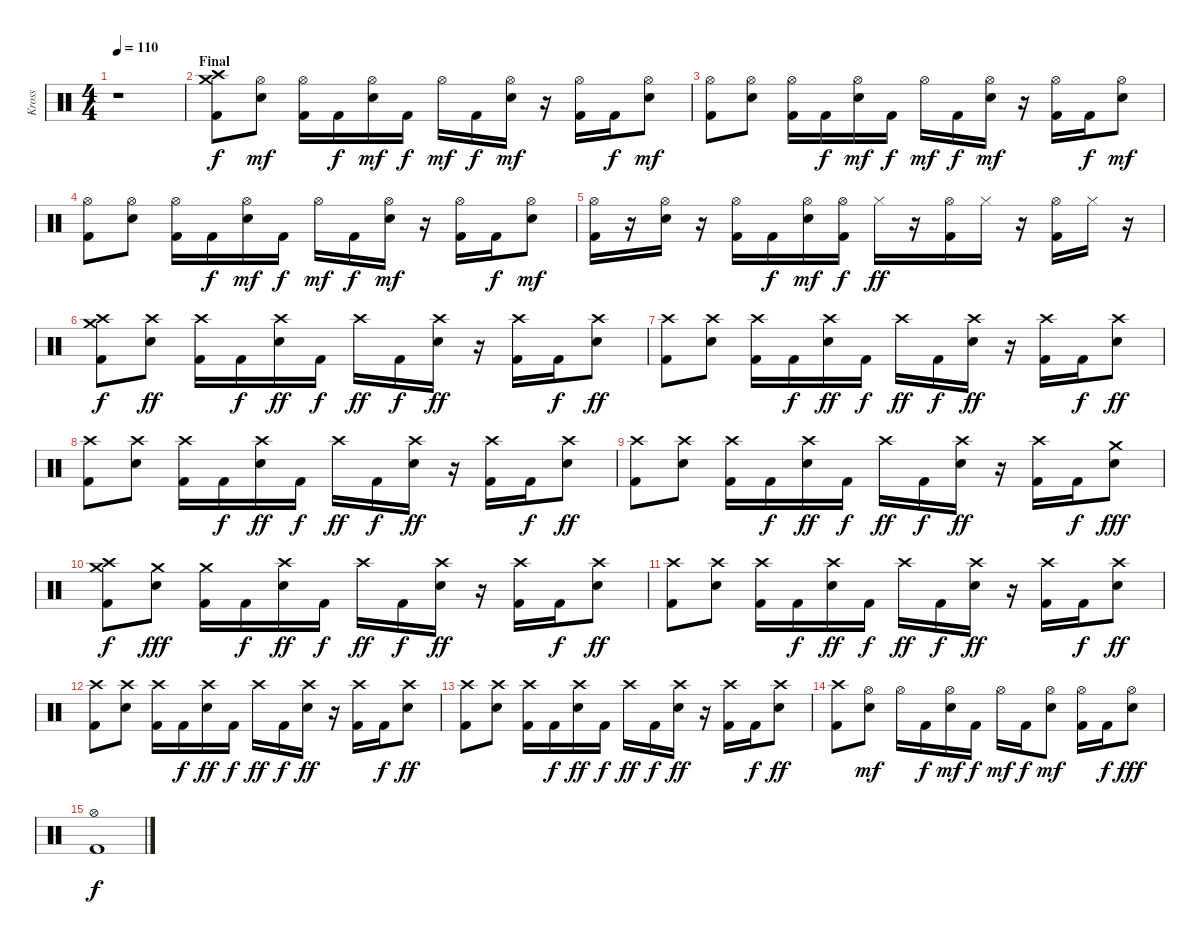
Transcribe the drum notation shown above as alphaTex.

\track ("Kross" "Kross") {instrument percussion}
\staff {score}
\articulation defaults
\ts (4 4)
\tempo 110
\clef neutral
\ks c
r.1{dy f} |
\section ("" "Final")
("Crash high (hit)" "Crash medium (hit)" "Kick (hit) 2").8 ("Hi-Hat (open)" "Electric Snare (hit)").8{dy mf} ("Hi-Hat (open)" "Kick (hit) 2").16 "Kick (hit) 2".16{dy f} ("Hi-Hat (open)" "Electric Snare (hit)").16{dy mf} "Kick (hit) 2".16{dy f} "Hi-Hat (open)".16{dy mf} "Kick (hit) 2".16{dy f} ("Hi-Hat (open)" "Electric Snare (hit)").16{dy mf} r.16 ("Hi-Hat (open)" "Kick (hit) 2").16 "Kick (hit) 2".16{dy f} ("Hi-Hat (open)" "Electric Snare (hit)").8{dy mf} |
("Hi-Hat (open)" "Kick (hit) 2").8 ("Hi-Hat (open)" "Electric Snare (hit)").8 ("Hi-Hat (open)" "Kick (hit) 2").16 "Kick (hit) 2".16{dy f} ("Hi-Hat (open)" "Electric Snare (hit)").16{dy mf} "Kick (hit) 2".16{dy f} "Hi-Hat (open)".16{dy mf} "Kick (hit) 2".16{dy f} ("Hi-Hat (open)" "Electric Snare (hit)").16{dy mf} r.16 ("Hi-Hat (open)" "Kick (hit) 2").16 "Kick (hit) 2".16{dy f} ("Hi-Hat (open)" "Electric Snare (hit)").8{dy mf} |
("Hi-Hat (open)" "Kick (hit) 2").8 ("Hi-Hat (open)" "Electric Snare (hit)").8 ("Hi-Hat (open)" "Kick (hit) 2").16 "Kick (hit) 2".16{dy f} ("Hi-Hat (open)" "Electric Snare (hit)").16{dy mf} "Kick (hit) 2".16{dy f} "Hi-Hat (open)".16{dy mf} "Kick (hit) 2".16{dy f} ("Hi-Hat (open)" "Electric Snare (hit)").16{dy mf} r.16 ("Hi-Hat (open)" "Kick (hit) 2").16 "Kick (hit) 2".16{dy f} ("Hi-Hat (open)" "Electric Snare (hit)").8{dy mf} |
("Hi-Hat (open)" "Kick (hit) 2").16 r.16 ("Hi-Hat (open)" "Electric Snare (hit)").16 r.16 ("Hi-Hat (open)" "Kick (hit) 2").16 "Kick (hit) 2".16{dy f} ("Hi-Hat (open)" "Electric Snare (hit)").16{dy mf} ("Hi-Hat (open)" "Kick (hit) 2").16{dy f} "Hi-Hat (closed)".16{dy ff} r.16 ("Hi-Hat (open)" "Kick (hit) 2").16 "Hi-Hat (closed)".16 r.16 ("Hi-Hat (open)" "Kick (hit) 2").16 "Hi-Hat (closed)".16 r.16 |
("Crash high (hit)" "Crash medium (hit)" "Kick (hit) 2").8{dy f} ("Crash high (hit)" "Electric Snare (hit)").8{dy ff} ("Crash high (hit)" "Kick (hit) 2").16 "Kick (hit) 2".16{dy f} ("Crash high (hit)" "Electric Snare (hit)").16{dy ff} "Kick (hit) 2".16{dy f} "Crash high (hit)".16{dy ff} "Kick (hit) 2".16{dy f} ("Crash high (hit)" "Electric Snare (hit)").16{dy ff} r.16 ("Crash high (hit)" "Kick (hit) 2").16 "Kick (hit) 2".16{dy f} ("Crash high (hit)" "Electric Snare (hit)").8{dy ff} |
("Crash high (hit)" "Kick (hit) 2").8 ("Crash high (hit)" "Electric Snare (hit)").8 ("Crash high (hit)" "Kick (hit) 2").16 "Kick (hit) 2".16{dy f} ("Crash high (hit)" "Electric Snare (hit)").16{dy ff} "Kick (hit) 2".16{dy f} "Crash high (hit)".16{dy ff} "Kick (hit) 2".16{dy f} ("Crash high (hit)" "Electric Snare (hit)").16{dy ff} r.16 ("Crash high (hit)" "Kick (hit) 2").16 "Kick (hit) 2".16{dy f} ("Crash high (hit)" "Electric Snare (hit)").8{dy ff} |
("Crash high (hit)" "Kick (hit) 2").8 ("Crash high (hit)" "Electric Snare (hit)").8 ("Crash high (hit)" "Kick (hit) 2").16 "Kick (hit) 2".16{dy f} ("Crash high (hit)" "Electric Snare (hit)").16{dy ff} "Kick (hit) 2".16{dy f} "Crash high (hit)".16{dy ff} "Kick (hit) 2".16{dy f} ("Crash high (hit)" "Electric Snare (hit)").16{dy ff} r.16 ("Crash high (hit)" "Kick (hit) 2").16 "Kick (hit) 2".16{dy f} ("Crash high (hit)" "Electric Snare (hit)").8{dy ff} |
("Crash high (hit)" "Kick (hit) 2").8 ("Crash high (hit)" "Electric Snare (hit)").8 ("Crash high (hit)" "Kick (hit) 2").16 "Kick (hit) 2".16{dy f} ("Crash high (hit)" "Electric Snare (hit)").16{dy ff} "Kick (hit) 2".16{dy f} "Crash high (hit)".16{dy ff} "Kick (hit) 2".16{dy f} ("Crash high (hit)" "Electric Snare (hit)").16{dy ff} r.16 ("Crash high (hit)" "Kick (hit) 2").16 "Kick (hit) 2".16{dy f} ("Crash medium (hit)" "Electric Snare (hit)").8{dy fff} |
("Crash high (hit)" "Crash medium (hit)" "Kick (hit) 2").8{dy f} ("Crash medium (hit)" "Electric Snare (hit)").8{dy fff} ("Crash medium (hit)" "Kick (hit) 2").16 "Kick (hit) 2".16{dy f} ("Crash high (hit)" "Electric Snare (hit)").16{dy ff} "Kick (hit) 2".16{dy f} "Crash high (hit)".16{dy ff} "Kick (hit) 2".16{dy f} ("Crash high (hit)" "Electric Snare (hit)").16{dy ff} r.16 ("Crash high (hit)" "Kick (hit) 2").16 "Kick (hit) 2".16{dy f} ("Crash high (hit)" "Electric Snare (hit)").8{dy ff} |
("Crash high (hit)" "Kick (hit) 2").8 ("Crash high (hit)" "Electric Snare (hit)").8 ("Crash high (hit)" "Kick (hit) 2").16 "Kick (hit) 2".16{dy f} ("Crash high (hit)" "Electric Snare (hit)").16{dy ff} "Kick (hit) 2".16{dy f} "Crash high (hit)".16{dy ff} "Kick (hit) 2".16{dy f} ("Crash high (hit)" "Electric Snare (hit)").16{dy ff} r.16 ("Crash high (hit)" "Kick (hit) 2").16 "Kick (hit) 2".16{dy f} ("Crash high (hit)" "Electric Snare (hit)").8{dy ff} |
("Crash high (hit)" "Kick (hit) 2").8 ("Crash high (hit)" "Electric Snare (hit)").8 ("Crash high (hit)" "Kick (hit) 2").16 "Kick (hit) 2".16{dy f} ("Crash high (hit)" "Electric Snare (hit)").16{dy ff} "Kick (hit) 2".16{dy f} "Crash high (hit)".16{dy ff} "Kick (hit) 2".16{dy f} ("Crash high (hit)" "Electric Snare (hit)").16{dy ff} r.16 ("Crash high (hit)" "Kick (hit) 2").16 "Kick (hit) 2".16{dy f} ("Crash high (hit)" "Electric Snare (hit)").8{dy ff} |
("Crash high (hit)" "Kick (hit) 2").8 ("Crash high (hit)" "Electric Snare (hit)").8 ("Crash high (hit)" "Kick (hit) 2").16 "Kick (hit) 2".16{dy f} ("Crash high (hit)" "Electric Snare (hit)").16{dy ff} "Kick (hit) 2".16{dy f} "Crash high (hit)".16{dy ff} "Kick (hit) 2".16{dy f} ("Crash high (hit)" "Electric Snare (hit)").16{dy ff} r.16 ("Crash high (hit)" "Kick (hit) 2").16 "Kick (hit) 2".16{dy f} ("Crash high (hit)" "Electric Snare (hit)").8{dy ff} |
("Crash high (hit)" "Kick (hit) 2").8 ("Hi-Hat (open)" "Electric Snare (hit)").8{dy mf} "Hi-Hat (open)".16 "Kick (hit) 2".16{dy f} ("Hi-Hat (open)" "Electric Snare (hit)").16{dy mf} "Kick (hit) 2".16{dy f} "Hi-Hat (open)".16{dy mf} "Kick (hit) 2".16{dy f} ("Hi-Hat (open)" "Electric Snare (hit)").8{dy mf} ("Hi-Hat (open)" "Kick (hit) 2").16 "Kick (hit) 2".16{dy f} ("Hi-Hat (open)" "Electric Snare (hit)").8{dy fff} |
("Hi-Hat (open)" "Kick (hit) 2").1{dy f}
